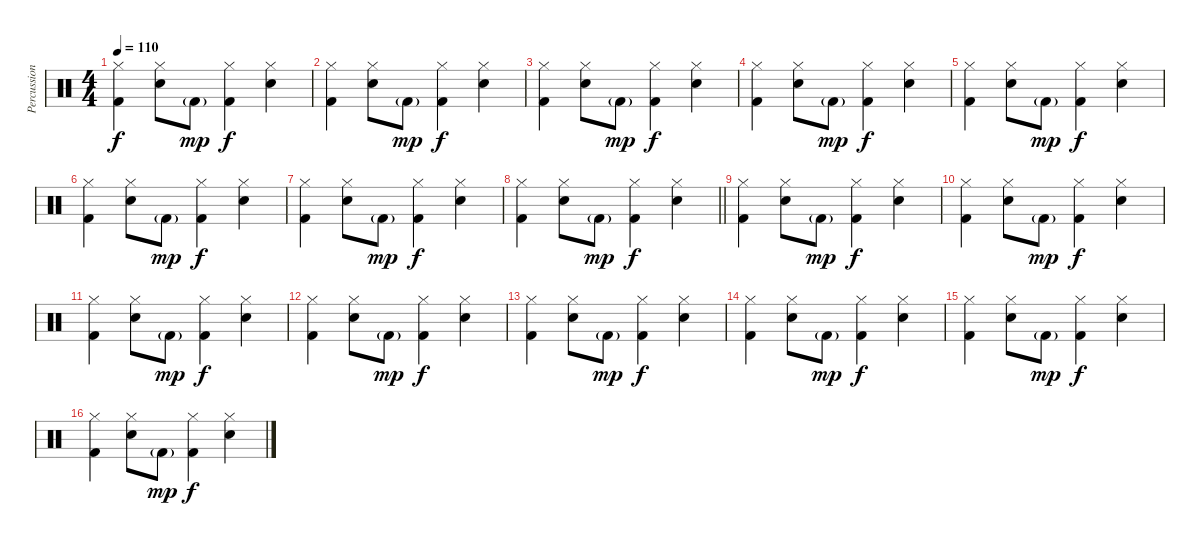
\track ("Percussion" "Percussion") {instrument percussion}
\staff {score}
\articulation defaults
\ts (4 4)
\tempo 110
\clef neutral
\ks c
("Hi-Hat (closed)" "Kick (hit) 2").4{dy f} ("Hi-Hat (closed)" "Snare (hit) 2").8 "Kick (hit) 2"{g}.8{dy mp} ("Hi-Hat (closed)" "Kick (hit) 2").4{dy f} ("Hi-Hat (closed)" "Snare (hit) 2").4 |
("Hi-Hat (closed)" "Kick (hit) 2").4 ("Hi-Hat (closed)" "Snare (hit) 2").8 "Kick (hit) 2"{g}.8{dy mp} ("Hi-Hat (closed)" "Kick (hit) 2").4{dy f} ("Hi-Hat (closed)" "Snare (hit) 2").4 |
("Hi-Hat (closed)" "Kick (hit) 2").4 ("Hi-Hat (closed)" "Snare (hit) 2").8 "Kick (hit) 2"{g}.8{dy mp} ("Hi-Hat (closed)" "Kick (hit) 2").4{dy f} ("Hi-Hat (closed)" "Snare (hit) 2").4 |
("Hi-Hat (closed)" "Kick (hit) 2").4 ("Hi-Hat (closed)" "Snare (hit) 2").8 "Kick (hit) 2"{g}.8{dy mp} ("Hi-Hat (closed)" "Kick (hit) 2").4{dy f} ("Hi-Hat (closed)" "Snare (hit) 2").4 |
("Hi-Hat (closed)" "Kick (hit) 2").4 ("Hi-Hat (closed)" "Snare (hit) 2").8 "Kick (hit) 2"{g}.8{dy mp} ("Hi-Hat (closed)" "Kick (hit) 2").4{dy f} ("Hi-Hat (closed)" "Snare (hit) 2").4 |
("Hi-Hat (closed)" "Kick (hit) 2").4 ("Hi-Hat (closed)" "Snare (hit) 2").8 "Kick (hit) 2"{g}.8{dy mp} ("Hi-Hat (closed)" "Kick (hit) 2").4{dy f} ("Hi-Hat (closed)" "Snare (hit) 2").4 |
("Hi-Hat (closed)" "Kick (hit) 2").4 ("Hi-Hat (closed)" "Snare (hit) 2").8 "Kick (hit) 2"{g}.8{dy mp} ("Hi-Hat (closed)" "Kick (hit) 2").4{dy f} ("Hi-Hat (closed)" "Snare (hit) 2").4 |
\barLineRight lightlight
("Hi-Hat (closed)" "Kick (hit) 2").4 ("Hi-Hat (closed)" "Snare (hit) 2").8 "Kick (hit) 2"{g}.8{dy mp} ("Hi-Hat (closed)" "Kick (hit) 2").4{dy f} ("Hi-Hat (closed)" "Snare (hit) 2").4 |
("Hi-Hat (closed)" "Kick (hit) 2").4 ("Hi-Hat (closed)" "Snare (hit) 2").8 "Kick (hit) 2"{g}.8{dy mp} ("Hi-Hat (closed)" "Kick (hit) 2").4{dy f} ("Hi-Hat (closed)" "Snare (hit) 2").4 |
("Hi-Hat (closed)" "Kick (hit) 2").4 ("Hi-Hat (closed)" "Snare (hit) 2").8 "Kick (hit) 2"{g}.8{dy mp} ("Hi-Hat (closed)" "Kick (hit) 2").4{dy f} ("Hi-Hat (closed)" "Snare (hit) 2").4 |
("Hi-Hat (closed)" "Kick (hit) 2").4 ("Hi-Hat (closed)" "Snare (hit) 2").8 "Kick (hit) 2"{g}.8{dy mp} ("Hi-Hat (closed)" "Kick (hit) 2").4{dy f} ("Hi-Hat (closed)" "Snare (hit) 2").4 |
("Hi-Hat (closed)" "Kick (hit) 2").4 ("Hi-Hat (closed)" "Snare (hit) 2").8 "Kick (hit) 2"{g}.8{dy mp} ("Hi-Hat (closed)" "Kick (hit) 2").4{dy f} ("Hi-Hat (closed)" "Snare (hit) 2").4 |
("Hi-Hat (closed)" "Kick (hit) 2").4 ("Hi-Hat (closed)" "Snare (hit) 2").8 "Kick (hit) 2"{g}.8{dy mp} ("Hi-Hat (closed)" "Kick (hit) 2").4{dy f} ("Hi-Hat (closed)" "Snare (hit) 2").4 |
("Hi-Hat (closed)" "Kick (hit) 2").4 ("Hi-Hat (closed)" "Snare (hit) 2").8 "Kick (hit) 2"{g}.8{dy mp} ("Hi-Hat (closed)" "Kick (hit) 2").4{dy f} ("Hi-Hat (closed)" "Snare (hit) 2").4 |
("Hi-Hat (closed)" "Kick (hit) 2").4 ("Hi-Hat (closed)" "Snare (hit) 2").8 "Kick (hit) 2"{g}.8{dy mp} ("Hi-Hat (closed)" "Kick (hit) 2").4{dy f} ("Hi-Hat (closed)" "Snare (hit) 2").4 |
("Hi-Hat (closed)" "Kick (hit) 2").4 ("Hi-Hat (closed)" "Snare (hit) 2").8 "Kick (hit) 2"{g}.8{dy mp} ("Hi-Hat (closed)" "Kick (hit) 2").4{dy f} ("Hi-Hat (closed)" "Snare (hit) 2").4
